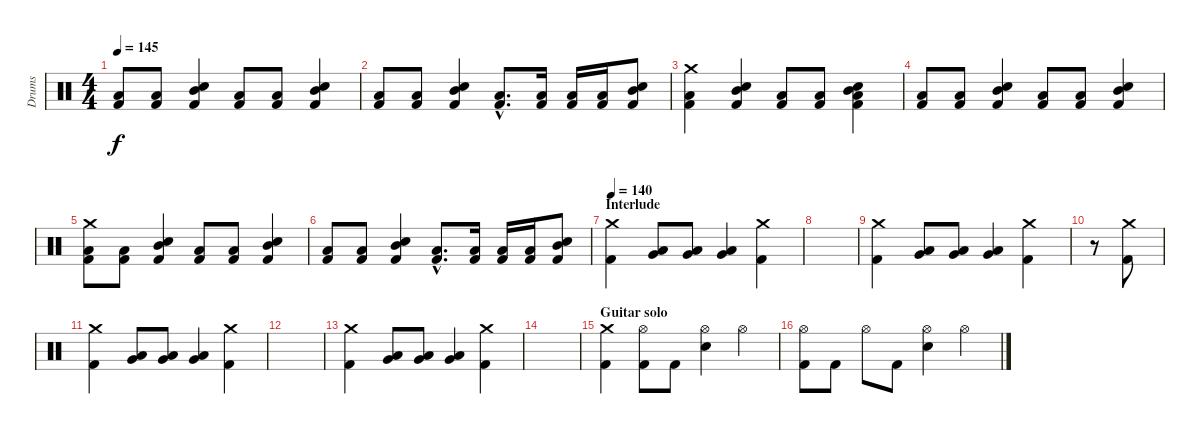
\track ("Drums" "Drums") {instrument percussion}
\staff {score}
\articulation defaults
\ts (4 4)
\tempo 145
\clef neutral
\ks c
("Low Tom (hit)" "Kick (hit) 2").8{dy f} ("Low Tom (hit)" "Kick (hit) 2").8 ("Mid Tom (hit)" "Electric Snare (hit)" "Kick (hit) 2").4 ("Low Tom (hit)" "Kick (hit) 2").8 ("Low Tom (hit)" "Kick (hit) 2").8 ("Mid Tom (hit)" "Electric Snare (hit)" "Kick (hit) 2").4 |
("Low Tom (hit)" "Kick (hit) 2").8 ("Low Tom (hit)" "Kick (hit) 2").8 ("Mid Tom (hit)" "Electric Snare (hit)" "Kick (hit) 2").4 ("Low Tom (hit)"{hac} "Kick (hit) 2"{hac}).8{d} ("Low Tom (hit)" "Kick (hit) 2").16 ("Low Tom (hit)" "Kick (hit) 2").16 ("Low Tom (hit)" "Kick (hit) 2").16 ("Mid Tom (hit)" "Electric Snare (hit)" "Kick (hit) 2").8 |
("Crash medium (hit)" "Low Tom (hit)" "Kick (hit) 2").4 ("Electric Snare (hit)" "Mid Tom (hit)" "Kick (hit) 2").4 ("Low Tom (hit)" "Kick (hit) 2").8 ("Low Tom (hit)" "Kick (hit) 2").8 ("Electric Snare (hit)" "Mid Tom (hit)" "Low Tom (hit)" "Kick (hit) 2").4 |
("Low Tom (hit)" "Kick (hit) 2").8 ("Low Tom (hit)" "Kick (hit) 2").8 ("Mid Tom (hit)" "Electric Snare (hit)" "Kick (hit) 2").4 ("Low Tom (hit)" "Kick (hit) 2").8 ("Low Tom (hit)" "Kick (hit) 2").8 ("Mid Tom (hit)" "Electric Snare (hit)" "Kick (hit) 2").4 |
("Crash medium (hit)" "Low Tom (hit)" "Kick (hit) 2").8 ("Low Tom (hit)" "Kick (hit) 2").8 ("Mid Tom (hit)" "Electric Snare (hit)" "Kick (hit) 2").4 ("Low Tom (hit)" "Kick (hit) 2").8 ("Low Tom (hit)" "Kick (hit) 2").8 ("Mid Tom (hit)" "Electric Snare (hit)" "Kick (hit) 2").4 |
("Low Tom (hit)" "Kick (hit) 2").8 ("Low Tom (hit)" "Kick (hit) 2").8 ("Mid Tom (hit)" "Electric Snare (hit)" "Kick (hit) 2").4 ("Low Tom (hit)"{hac} "Kick (hit) 2"{hac}).8{d} ("Low Tom (hit)" "Kick (hit) 2").16 ("Low Tom (hit)" "Kick (hit) 2").16 ("Low Tom (hit)" "Kick (hit) 2").16 ("Mid Tom (hit)" "Electric Snare (hit)" "Kick (hit) 2").8 |
\section ("" "Interlude")
\tempo 140
("Crash medium (hit)" "Kick (hit) 2").4 ("Low Tom (hit)" "Very Low Tom (hit)").8 ("Low Tom (hit)" "Very Low Tom (hit)").8 ("Low Tom (hit)" "Very Low Tom (hit)").4 ("Crash medium (hit)" "Kick (hit) 2").4 |
|
("Crash medium (hit)" "Kick (hit) 2").4 ("Low Tom (hit)" "Very Low Tom (hit)").8 ("Low Tom (hit)" "Very Low Tom (hit)").8 ("Low Tom (hit)" "Very Low Tom (hit)").4 ("Crash medium (hit)" "Kick (hit) 2").4 |
r.8 ("Crash medium (hit)" "Kick (hit) 2").8 |
("Crash medium (hit)" "Kick (hit) 2").4 ("Low Tom (hit)" "Very Low Tom (hit)").8 ("Low Tom (hit)" "Very Low Tom (hit)").8 ("Low Tom (hit)" "Very Low Tom (hit)").4 ("Crash medium (hit)" "Kick (hit) 2").4 |
|
("Crash medium (hit)" "Kick (hit) 2").4 ("Low Tom (hit)" "Very Low Tom (hit)").8 ("Low Tom (hit)" "Very Low Tom (hit)").8 ("Low Tom (hit)" "Very Low Tom (hit)").4 ("Crash medium (hit)" "Kick (hit) 2").4 |
|
\section ("" "Guitar solo")
("Crash medium (hit)" "Kick (hit) 2").4 ("Hi-Hat (open)" "Kick (hit) 2").8 "Kick (hit) 2".8 ("Hi-Hat (open)" "Electric Snare (hit)").4 "Hi-Hat (open)".4 |
("Hi-Hat (open)" "Kick (hit) 2").8 "Kick (hit) 2".8 "Hi-Hat (open)".8 "Kick (hit) 2".8 ("Hi-Hat (open)" "Electric Snare (hit)").4 "Hi-Hat (open)".4
